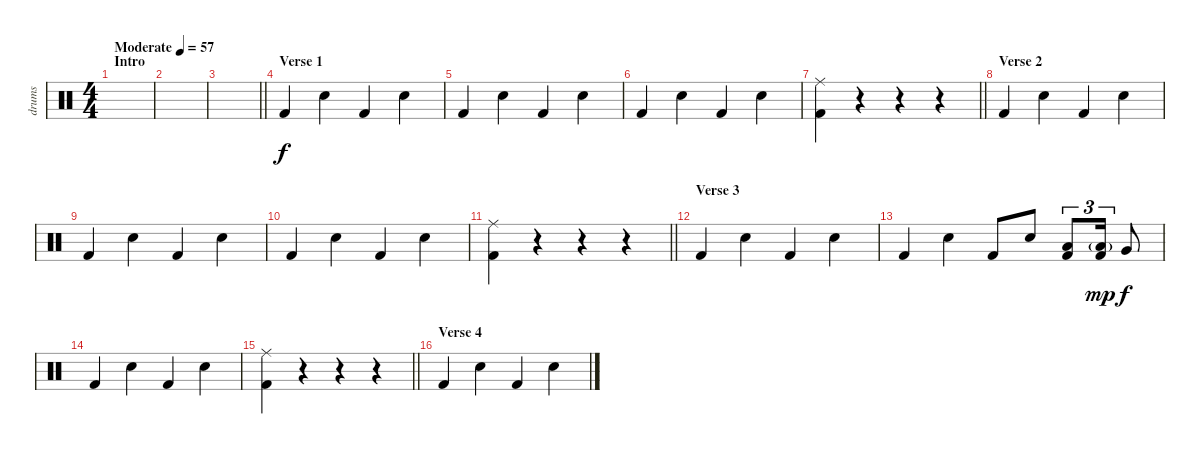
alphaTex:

\track ("drums" "drums") {instrument percussion}
\staff {score}
\articulation defaults
\ts (4 4)
\section ("" "Intro")
\tempo (57 "Moderate")
\clef neutral
\ks c
|
|
\barLineRight lightlight
|
\section ("" "Verse 1")
"Kick (hit) 2".4 "Electric Snare (hit)".4 "Kick (hit) 2".4 "Electric Snare (hit)".4 |
"Kick (hit) 2".4 "Electric Snare (hit)".4 "Kick (hit) 2".4 "Electric Snare (hit)".4 |
"Kick (hit) 2".4 "Electric Snare (hit)".4 "Kick (hit) 2".4 "Electric Snare (hit)".4 |
\barLineRight lightlight
("Ride (middle)" "Kick (hit) 2").4 r.4 r.4 r.4 |
\section ("" "Verse 2")
"Kick (hit) 2".4 "Electric Snare (hit)".4 "Kick (hit) 2".4 "Electric Snare (hit)".4 |
"Kick (hit) 2".4 "Electric Snare (hit)".4 "Kick (hit) 2".4 "Electric Snare (hit)".4 |
"Kick (hit) 2".4 "Electric Snare (hit)".4 "Kick (hit) 2".4 "Electric Snare (hit)".4 |
\barLineRight lightlight
("Ride (middle)" "Kick (hit) 2").4 r.4 r.4 r.4 |
\section ("" "Verse 3")
"Kick (hit) 2".4 "Electric Snare (hit)".4 "Kick (hit) 2".4 "Electric Snare (hit)".4 |
"Kick (hit) 2".4 "Electric Snare (hit)".4 "Kick (hit) 2".8 "Electric Snare (hit)".8 ("Low Tom (hit)" "Kick (hit) 2").8{tu (3 2)} ("Low Tom (hit)"{g} "Kick (hit) 2").16{tu (3 2) dy mp} "Very Low Tom (hit)".8{dy f} |
"Kick (hit) 2".4 "Electric Snare (hit)".4 "Kick (hit) 2".4 "Electric Snare (hit)".4 |
\barLineRight lightlight
("Ride (middle)" "Kick (hit) 2").4 r.4 r.4 r.4 |
\section ("" "Verse 4")
"Kick (hit) 2".4 "Electric Snare (hit)".4 "Kick (hit) 2".4 "Electric Snare (hit)".4
